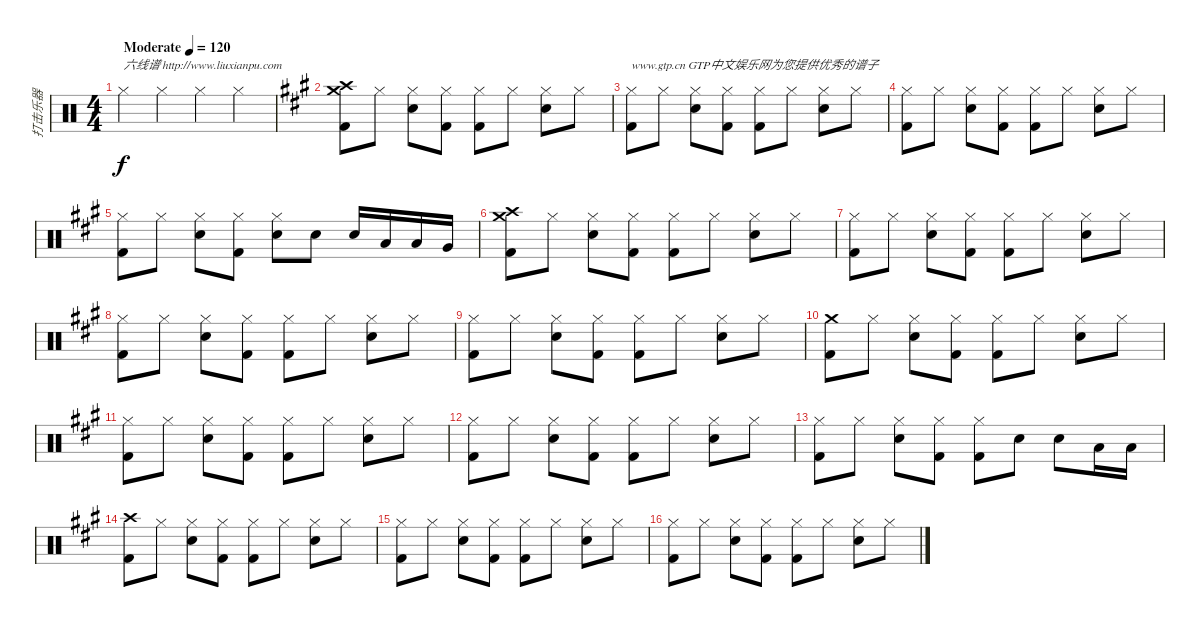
\track ("打击乐器" "打击乐器") {instrument percussion}
\staff {score}
\articulation defaults
\ts (4 4)
\tempo (120 "Moderate")
\clef neutral
\ks c "Hi-Hat (closed)".4{txt "六线谱 http://www.liuxianpu.com" dy f} "Hi-Hat (closed)".4 "Hi-Hat (closed)".4 "Hi-Hat (closed)".4
|
\ks a
("Crash high (hit)" "Crash medium (hit)" "Kick (hit) 2").8 "Hi-Hat (closed)".8 ("Hi-Hat (closed)" "Electric Snare (hit)").8 ("Hi-Hat (closed)" "Kick (hit) 2").8 ("Hi-Hat (closed)" "Kick (hit) 2").8 "Hi-Hat (closed)".8 ("Hi-Hat (closed)" "Electric Snare (hit)").8 "Hi-Hat (closed)".8 |
("Hi-Hat (closed)" "Kick (hit) 2").8{txt "www.gtp.cn GTP中文娱乐网为您提供优秀的谱子"} "Hi-Hat (closed)".8 ("Hi-Hat (closed)" "Electric Snare (hit)").8 ("Hi-Hat (closed)" "Kick (hit) 2").8 ("Hi-Hat (closed)" "Kick (hit) 2").8 "Hi-Hat (closed)".8 ("Hi-Hat (closed)" "Electric Snare (hit)").8 "Hi-Hat (closed)".8 |
("Hi-Hat (closed)" "Kick (hit) 2").8 "Hi-Hat (closed)".8 ("Hi-Hat (closed)" "Electric Snare (hit)").8 ("Hi-Hat (closed)" "Kick (hit) 2").8 ("Hi-Hat (closed)" "Kick (hit) 2").8 "Hi-Hat (closed)".8 ("Hi-Hat (closed)" "Electric Snare (hit)").8 "Hi-Hat (closed)".8 |
("Hi-Hat (closed)" "Kick (hit) 2").8 "Hi-Hat (closed)".8 ("Hi-Hat (closed)" "Electric Snare (hit)").8 ("Hi-Hat (closed)" "Kick (hit) 2").8 ("Hi-Hat (closed)" "Electric Snare (hit)").8 "Electric Snare (hit)".8 "Electric Snare (hit)".16 "Low Tom (hit)".16 "Low Tom (hit)".16 "Very Low Tom (hit)".16 |
("Crash high (hit)" "Crash medium (hit)" "Kick (hit) 2").8 "Hi-Hat (closed)".8 ("Hi-Hat (closed)" "Electric Snare (hit)").8 ("Hi-Hat (closed)" "Kick (hit) 2").8 ("Hi-Hat (closed)" "Kick (hit) 2").8 "Hi-Hat (closed)".8 ("Hi-Hat (closed)" "Electric Snare (hit)").8 "Hi-Hat (closed)".8 |
("Hi-Hat (closed)" "Kick (hit) 2").8 "Hi-Hat (closed)".8 ("Hi-Hat (closed)" "Electric Snare (hit)").8 ("Hi-Hat (closed)" "Kick (hit) 2").8 ("Hi-Hat (closed)" "Kick (hit) 2").8 "Hi-Hat (closed)".8 ("Hi-Hat (closed)" "Electric Snare (hit)").8 "Hi-Hat (closed)".8 |
("Hi-Hat (closed)" "Kick (hit) 2").8 "Hi-Hat (closed)".8 ("Hi-Hat (closed)" "Electric Snare (hit)").8 ("Hi-Hat (closed)" "Kick (hit) 2").8 ("Hi-Hat (closed)" "Kick (hit) 2").8 "Hi-Hat (closed)".8 ("Hi-Hat (closed)" "Electric Snare (hit)").8 "Hi-Hat (closed)".8 |
("Hi-Hat (closed)" "Kick (hit) 2").8 "Hi-Hat (closed)".8 ("Hi-Hat (closed)" "Electric Snare (hit)").8 ("Hi-Hat (closed)" "Kick (hit) 2").8 ("Hi-Hat (closed)" "Kick (hit) 2").8 "Hi-Hat (closed)".8 ("Hi-Hat (closed)" "Electric Snare (hit)").8 "Hi-Hat (closed)".8 |
("Crash medium (hit)" "Kick (hit) 2").8 "Hi-Hat (closed)".8 ("Hi-Hat (closed)" "Electric Snare (hit)").8 ("Hi-Hat (closed)" "Kick (hit) 2").8 ("Hi-Hat (closed)" "Kick (hit) 2").8 "Hi-Hat (closed)".8 ("Hi-Hat (closed)" "Electric Snare (hit)").8 "Hi-Hat (closed)".8 |
("Hi-Hat (closed)" "Kick (hit) 2").8 "Hi-Hat (closed)".8 ("Hi-Hat (closed)" "Electric Snare (hit)").8 ("Hi-Hat (closed)" "Kick (hit) 2").8 ("Hi-Hat (closed)" "Kick (hit) 2").8 "Hi-Hat (closed)".8 ("Hi-Hat (closed)" "Electric Snare (hit)").8 "Hi-Hat (closed)".8 |
("Hi-Hat (closed)" "Kick (hit) 2").8 "Hi-Hat (closed)".8 ("Hi-Hat (closed)" "Electric Snare (hit)").8 ("Hi-Hat (closed)" "Kick (hit) 2").8 ("Hi-Hat (closed)" "Kick (hit) 2").8 "Hi-Hat (closed)".8 ("Hi-Hat (closed)" "Electric Snare (hit)").8 "Hi-Hat (closed)".8 |
("Hi-Hat (closed)" "Kick (hit) 2").8 "Hi-Hat (closed)".8 ("Hi-Hat (closed)" "Electric Snare (hit)").8 ("Hi-Hat (closed)" "Kick (hit) 2").8 ("Hi-Hat (closed)" "Kick (hit) 2").8 "Electric Snare (hit)".8 "Electric Snare (hit)".8 "Low Tom (hit)".16 "Low Tom (hit)".16 |
("Crash high (hit)" "Kick (hit) 2").8 "Hi-Hat (closed)".8 ("Hi-Hat (closed)" "Electric Snare (hit)").8 ("Hi-Hat (closed)" "Kick (hit) 2").8 ("Hi-Hat (closed)" "Kick (hit) 2").8 "Hi-Hat (closed)".8 ("Hi-Hat (closed)" "Electric Snare (hit)").8 "Hi-Hat (closed)".8 |
("Hi-Hat (closed)" "Kick (hit) 2").8 "Hi-Hat (closed)".8 ("Hi-Hat (closed)" "Electric Snare (hit)").8 ("Hi-Hat (closed)" "Kick (hit) 2").8 ("Hi-Hat (closed)" "Kick (hit) 2").8 "Hi-Hat (closed)".8 ("Hi-Hat (closed)" "Electric Snare (hit)").8 "Hi-Hat (closed)".8 |
("Hi-Hat (closed)" "Kick (hit) 2").8 "Hi-Hat (closed)".8 ("Hi-Hat (closed)" "Electric Snare (hit)").8 ("Hi-Hat (closed)" "Kick (hit) 2").8 ("Hi-Hat (closed)" "Kick (hit) 2").8 "Hi-Hat (closed)".8 ("Hi-Hat (closed)" "Electric Snare (hit)").8 "Hi-Hat (closed)".8
